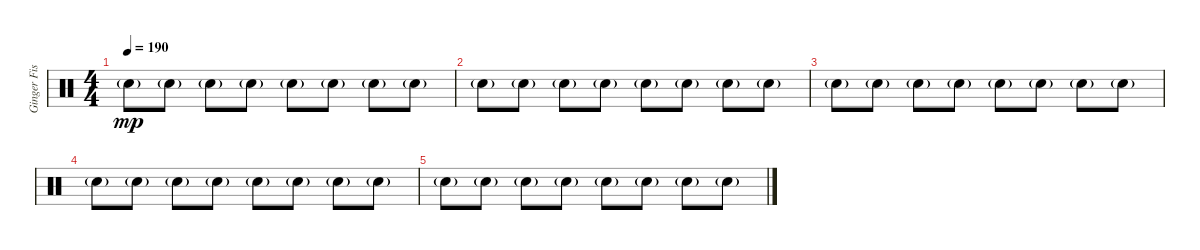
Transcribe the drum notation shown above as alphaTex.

\track ("Ginger Fish " "Ginger Fis") {instrument percussion}
\staff {score}
\articulation defaults
\ts (4 4)
\tempo 190
\clef neutral
\ks c "Electric Snare (hit)"{g}.8{dy mp} "Electric Snare (hit)"{g}.8 "Electric Snare (hit)"{g}.8 "Electric Snare (hit)"{g}.8 "Electric Snare (hit)"{g}.8 "Electric Snare (hit)"{g}.8 "Electric Snare (hit)"{g}.8 "Electric Snare (hit)"{g}.8
|
"Electric Snare (hit)"{g}.8 "Electric Snare (hit)"{g}.8 "Electric Snare (hit)"{g}.8 "Electric Snare (hit)"{g}.8 "Electric Snare (hit)"{g}.8 "Electric Snare (hit)"{g}.8 "Electric Snare (hit)"{g}.8 "Electric Snare (hit)"{g}.8 |
"Electric Snare (hit)"{g}.8 "Electric Snare (hit)"{g}.8 "Electric Snare (hit)"{g}.8 "Electric Snare (hit)"{g}.8 "Electric Snare (hit)"{g}.8 "Electric Snare (hit)"{g}.8 "Electric Snare (hit)"{g}.8 "Electric Snare (hit)"{g}.8 |
"Electric Snare (hit)"{g}.8 "Electric Snare (hit)"{g}.8 "Electric Snare (hit)"{g}.8 "Electric Snare (hit)"{g}.8 "Electric Snare (hit)"{g}.8 "Electric Snare (hit)"{g}.8 "Electric Snare (hit)"{g}.8 "Electric Snare (hit)"{g}.8 |
"Electric Snare (hit)"{g}.8 "Electric Snare (hit)"{g}.8 "Electric Snare (hit)"{g}.8 "Electric Snare (hit)"{g}.8 "Electric Snare (hit)"{g}.8 "Electric Snare (hit)"{g}.8 "Electric Snare (hit)"{g}.8 "Electric Snare (hit)"{g}.8
